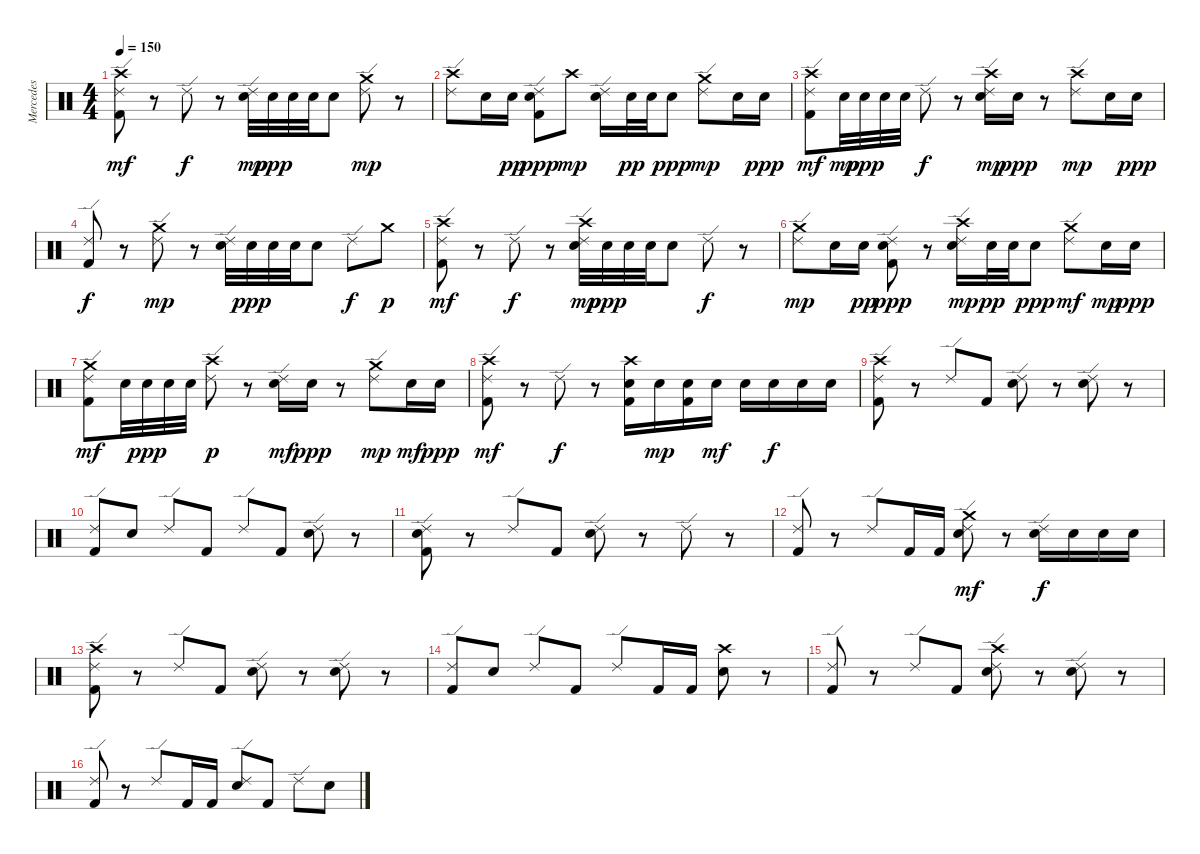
\track ("Mercedes" "Mercedes") {instrument percussion}
\staff {score}
\articulation defaults
\ts (4 4)
\tempo 150
\clef neutral
\ks c
("Crash high (hit)" "Ride (edge) 2" "Kick (hit) 2").8{dy mf} r.8 "Ride (edge) 2".8{dy f} r.8 ("Ride (edge) 2" "Snare (hit) 2").32{dy mp} "Snare (hit) 2".32{dy ppp} "Snare (hit) 2".32 "Snare (hit) 2".32 "Snare (hit) 2".8 ("Crash medium (hit)" "Ride (edge) 2").8{dy mp} r.8 |
("Crash high (hit)" "Ride (edge) 2").8 "Snare (hit) 2".16 "Snare (hit) 2".16{dy pp} ("Ride (edge) 2" "Snare (hit) 2" "Kick (hit) 2").8{dy ppp} "Crash high (hit)".8{dy mp} ("Ride (edge) 2" "Snare (hit) 2").16 "Snare (hit) 2".32{dy pp} "Snare (hit) 2".32 "Snare (hit) 2".8{dy ppp} ("Crash medium (hit)" "Ride (edge) 2").8{dy mp} "Snare (hit) 2".16 "Snare (hit) 2".16{dy ppp} |
("Crash high (hit)" "Ride (edge) 2" "Kick (hit) 2").8{dy mf} "Snare (hit) 2".32{dy mp} "Snare (hit) 2".32{dy ppp} "Snare (hit) 2".32 "Snare (hit) 2".32 "Ride (edge) 2".8{dy f} r.8 ("Crash high (hit)" "Ride (edge) 2" "Snare (hit) 2").16{dy mp} "Snare (hit) 2".16{dy ppp} r.8 ("Crash high (hit)" "Ride (edge) 2").8{dy mp} "Snare (hit) 2".16 "Snare (hit) 2".16{dy ppp} |
("Ride (edge) 2" "Kick (hit) 2").8{dy f} r.8 ("Crash medium (hit)" "Ride (edge) 2").8{dy mp} r.8 ("Ride (edge) 2" "Snare (hit) 2").32 "Snare (hit) 2".32{dy ppp} "Snare (hit) 2".32 "Snare (hit) 2".32 "Snare (hit) 2".8 "Ride (edge) 2".8{dy f} "Crash medium (hit)".8{dy p} |
("Crash high (hit)" "Ride (edge) 2" "Kick (hit) 2").8{dy mf} r.8 "Ride (edge) 2".8{dy f} r.8 ("Crash high (hit)" "Ride (edge) 2" "Snare (hit) 2").32{dy mp} "Snare (hit) 2".32{dy ppp} "Snare (hit) 2".32 "Snare (hit) 2".32 "Snare (hit) 2".8 "Ride (edge) 2".8{dy f} r.8 |
("Crash medium (hit)" "Ride (edge) 2").8{dy mp} "Snare (hit) 2".16 "Snare (hit) 2".16{dy pp} ("Ride (edge) 2" "Snare (hit) 2" "Kick (hit) 2").8{dy ppp} r.8 ("Crash high (hit)" "Ride (edge) 2" "Snare (hit) 2").16{dy mp} "Snare (hit) 2".32{dy pp} "Snare (hit) 2".32 "Snare (hit) 2".8{dy ppp} ("Crash medium (hit)" "Ride (edge) 2").8{dy mf} "Snare (hit) 2".16{dy mp} "Snare (hit) 2".16{dy ppp} |
("Crash medium (hit)" "Ride (edge) 2" "Kick (hit) 2").8{dy mf} "Snare (hit) 2".32 "Snare (hit) 2".32{dy ppp} "Snare (hit) 2".32 "Snare (hit) 2".32 ("Crash high (hit)" "Ride (edge) 2").8{dy p} r.8 ("Ride (edge) 2" "Snare (hit) 2").16{dy mf} "Snare (hit) 2".16{dy ppp} r.8 ("Crash medium (hit)" "Ride (edge) 2").8{dy mp} "Snare (hit) 2".16{dy mf} "Snare (hit) 2".16{dy ppp} |
("Crash high (hit)" "Ride (edge) 2" "Kick (hit) 2").8{dy mf} r.8 "Ride (edge) 2".8{dy f} r.8 ("Crash high (hit)" "Snare (hit) 2" "Kick (hit) 2").16 "Snare (hit) 2".16{dy mp} ("Snare (hit) 2" "Kick (hit) 2").16 "Snare (hit) 2".16{dy mf} "Snare (hit) 2".16 "Snare (hit) 2".16{dy f} "Snare (hit) 2".16 "Snare (hit) 2".16 |
("Crash high (hit)" "Ride (edge) 2" "Kick (hit) 2").8 r.8 "Ride (edge) 2".8 "Kick (hit) 2".8 ("Ride (edge) 2" "Snare (hit) 2").8 r.8 ("Ride (edge) 2" "Snare (hit) 2").8 r.8 |
("Ride (edge) 2" "Kick (hit) 2").8 "Snare (hit) 2".8 "Ride (edge) 2".8 "Kick (hit) 2".8 "Ride (edge) 2".8 "Kick (hit) 2".8 ("Ride (edge) 2" "Snare (hit) 2").8 r.8 |
("Ride (edge) 2" "Snare (hit) 2" "Kick (hit) 2").8 r.8 "Ride (edge) 2".8 "Kick (hit) 2".8 ("Ride (edge) 2" "Snare (hit) 2").8 r.8 "Ride (edge) 2".8 r.8 |
("Ride (edge) 2" "Kick (hit) 2").8 r.8 "Ride (edge) 2".8 "Kick (hit) 2".16 "Kick (hit) 2".16 ("Crash medium (hit)" "Ride (edge) 2" "Snare (hit) 2").8{dy mf} r.8 ("Ride (edge) 2" "Snare (hit) 2").16{dy f} "Snare (hit) 2".16 "Snare (hit) 2".16 "Snare (hit) 2".16 |
("Crash high (hit)" "Ride (edge) 2" "Kick (hit) 2").8 r.8 "Ride (edge) 2".8 "Kick (hit) 2".8 ("Ride (edge) 2" "Snare (hit) 2").8 r.8 ("Ride (edge) 2" "Snare (hit) 2").8 r.8 |
("Ride (edge) 2" "Kick (hit) 2").8 "Snare (hit) 2".8 "Ride (edge) 2".8 "Kick (hit) 2".8 "Ride (edge) 2".8 "Kick (hit) 2".16 "Kick (hit) 2".16 ("Crash high (hit)" "Snare (hit) 2").8 r.8 |
("Ride (edge) 2" "Kick (hit) 2").8 r.8 "Ride (edge) 2".8 "Kick (hit) 2".8 ("Crash high (hit)" "Ride (edge) 2" "Snare (hit) 2").8 r.8 ("Ride (edge) 2" "Snare (hit) 2").8 r.8 |
("Ride (edge) 2" "Kick (hit) 2").8 r.8 "Ride (edge) 2".8 "Kick (hit) 2".16 "Kick (hit) 2".16 ("Ride (edge) 2" "Snare (hit) 2").8 "Kick (hit) 2".8 "Ride (edge) 2".8 "Snare (hit) 2".8
